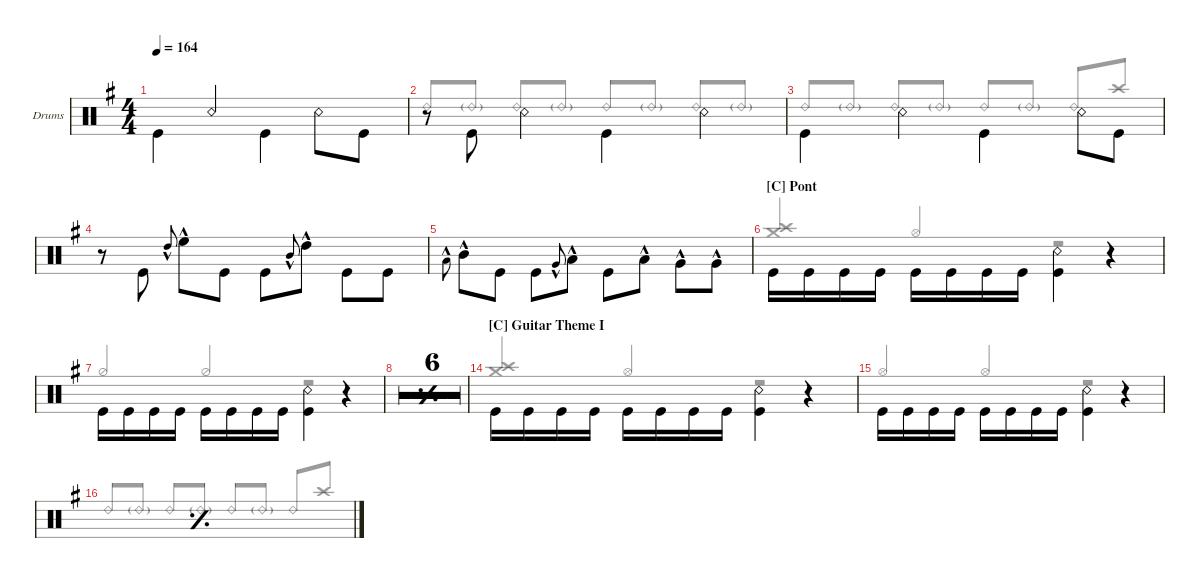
\defaultSystemsLayout 4
\hideDynamics
\bracketExtendMode groupsimilarinstruments
\firstSystemTrackNameOrientation horizontal
\otherSystemsTrackNameOrientation horizontal
\track ("Drumkit" "Drums") {multiBarRest instrument percussion}
\staff {score}
\articulation defaults
\voice
\ts (4 4)
\tempo 164
\clef neutral
\ks eminor "Kick (hit)".4{dy ff beam invert} "Snare (rim shot)".4{beam invert} "Kick (hit)".4{beam invert} "Snare (rim shot)".8{beam invert} "Kick (hit)".8
|
r.8 "Kick (hit)".8{beam invert} "Snare (rim shot)".4{beam invert} "Kick (hit)".4{beam invert} "Snare (rim shot)".4{beam invert} |
"Kick (hit)".4{beam invert} "Snare (rim shot)".4{beam invert} "Kick (hit)".4{beam invert} "Snare (rim shot)".8{beam invert} "Kick (hit)".8 |
r.8 "Kick (hit)".8{beam invert} "High Tom (hit)"{hac}.8{gr onbeat} "High Floor Tom (hit)"{hac}.8{beam invert} "Kick (hit)".8 "Kick (hit)".8{beam invert} "Mid Tom (hit)"{hac}.8{gr onbeat} "High Tom (hit)"{hac}.8 "Kick (hit)".8{beam invert} "Kick (hit)".8 |
"Low Tom (hit)"{hac}.8{gr onbeat beam invert} "Mid Tom (hit)"{hac}.8 "Kick (hit)".8{beam invert} "Kick (hit)".8{beam invert} "Very Low Tom (hit)"{hac}.8{gr onbeat} "Low Tom (hit)"{hac}.8 "Kick (hit)".8{beam invert} "Low Tom (hit)"{hac}.8 "Very Low Tom (hit)"{hac}.8{beam invert} "Very Low Tom (hit)"{hac}.8 |
\section ("C" "Pont")
\scale
0.427971 "Kick (hit)".16{beam invert} "Kick (hit)".16 "Kick (hit)".16 "Kick (hit)".16 "Kick (hit)".16{beam invert} "Kick (hit)".16 "Kick (hit)".16 "Kick (hit)".16 ("Kick (hit)" "Snare (rim shot)").4{beam invert} r.4{beam invert} |
\scale
0.36605 "Kick (hit)".16{beam invert} "Kick (hit)".16 "Kick (hit)".16 "Kick (hit)".16 "Kick (hit)".16{beam invert} "Kick (hit)".16 "Kick (hit)".16 "Kick (hit)".16 ("Kick (hit)" "Snare (rim shot)").4{beam invert} r.4 |
\simile simple
\scale
0.034328 |
\scale
0.034328 |
\scale
0.034328 |
\scale
0.034328 |
\scale
0.034328 |
\scale
0.034328 |
\section ("C" "Guitar Theme I")
\simile none
\scale
0.426537 "Kick (hit)".16{beam invert} "Kick (hit)".16 "Kick (hit)".16 "Kick (hit)".16 "Kick (hit)".16{beam invert} "Kick (hit)".16 "Kick (hit)".16 "Kick (hit)".16 ("Kick (hit)" "Snare (rim shot)").4{beam invert} r.4{beam invert} |
\scale
0.358924 "Kick (hit)".16{beam invert} "Kick (hit)".16 "Kick (hit)".16 "Kick (hit)".16 "Kick (hit)".16{beam invert} "Kick (hit)".16 "Kick (hit)".16 "Kick (hit)".16 ("Kick (hit)" "Snare (rim shot)").4{beam invert} r.4 |
\simile simple
\scale
0.0357536
\voice
\clef neutral
\ottava regular
\simile none
\ks eminor "Ride (bell) 2".8{dy mf beam invert} "Ride (bell) 2"{g}.8 "Ride (bell) 2".8{beam invert} "Ride (bell) 2"{g}.8 "Ride (bell) 2".8{beam invert} "Ride (bell) 2"{g}.8 "Ride (bell) 2".8{beam invert} "Crash high (hit)".8{dy f}
|
"Ride (bell) 2".8{dy mf beam invert} "Ride (bell) 2"{g}.8 "Ride (bell) 2".8{beam invert} "Ride (bell) 2"{g}.8 "Ride (bell) 2".8{beam invert} "Ride (bell) 2"{g}.8 "Ride (bell) 2".8{beam invert} "Ride (bell) 2"{g}.8 |
"Ride (bell) 2".8{beam invert} "Ride (bell) 2"{g}.8 "Ride (bell) 2".8{beam invert} "Ride (bell) 2"{g}.8 "Ride (bell) 2".8{beam invert} "Ride (bell) 2"{g}.8 "Ride (bell) 2".8{beam invert} "Crash high (hit)".8{dy f} |
|
|
\scale
0.427971 ("Crash high (hit)" "Crash medium (hit)").4{beam invert} "Hi-Hat (open)".4{beam invert} r.2 |
\scale
0.36605 "Hi-Hat (half)".4{beam invert} "Hi-Hat (half)".4{beam invert} r.2 |
\simile simple
\scale
0.034328 |
\scale
0.034328 |
\scale
0.034328 |
\scale
0.034328 |
\scale
0.034328 |
\scale
0.034328 |
\simile none
\scale
0.426537 ("Crash high (hit)" "Crash medium (hit)").4{beam invert} "Hi-Hat (open)".4{beam invert} r.2 |
\scale
0.358924 "Hi-Hat (open)".4{beam invert} "Hi-Hat (open)".4{beam invert} r.2 |
\simile simple
\scale
0.0357536
